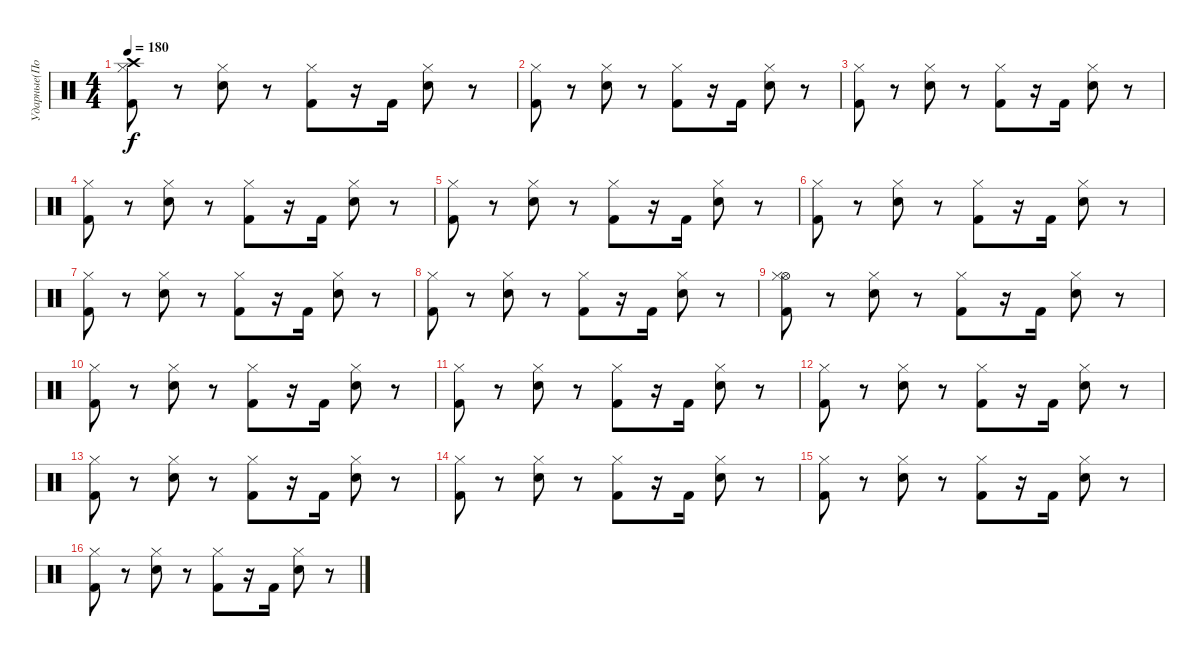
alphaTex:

\track ("Ударные(Потапкин)" "Ударные(По") {instrument percussion}
\staff {score}
\articulation defaults
\ts (4 4)
\tempo 180
\clef neutral
\ks c
("Crash high (hit)" "Hi-Hat (closed)" "Kick (hit) 2").8{dy f} r.8 ("Hi-Hat (closed)" "Electric Snare (hit)").8 r.8 ("Hi-Hat (closed)" "Kick (hit) 2").8 r.16 "Kick (hit) 2".16 ("Hi-Hat (closed)" "Electric Snare (hit)").8 r.8 |
("Kick (hit) 2" "Hi-Hat (closed)").8 r.8 ("Electric Snare (hit)" "Hi-Hat (closed)").8 r.8 ("Kick (hit) 2" "Hi-Hat (closed)").8 r.16 "Kick (hit) 2".16 ("Electric Snare (hit)" "Hi-Hat (closed)").8 r.8 |
("Hi-Hat (closed)" "Kick (hit) 2").8 r.8 ("Hi-Hat (closed)" "Electric Snare (hit)").8 r.8 ("Hi-Hat (closed)" "Kick (hit) 2").8 r.16 "Kick (hit) 2".16 ("Hi-Hat (closed)" "Electric Snare (hit)").8 r.8 |
("Hi-Hat (closed)" "Kick (hit) 2").8 r.8 ("Hi-Hat (closed)" "Electric Snare (hit)").8 r.8 ("Hi-Hat (closed)" "Kick (hit) 2").8 r.16 "Kick (hit) 2".16 ("Hi-Hat (closed)" "Electric Snare (hit)").8 r.8 |
("Kick (hit) 2" "Hi-Hat (closed)").8 r.8 ("Electric Snare (hit)" "Hi-Hat (closed)").8 r.8 ("Kick (hit) 2" "Hi-Hat (closed)").8 r.16 "Kick (hit) 2".16 ("Electric Snare (hit)" "Hi-Hat (closed)").8 r.8 |
("Kick (hit) 2" "Hi-Hat (closed)").8 r.8 ("Electric Snare (hit)" "Hi-Hat (closed)").8 r.8 ("Kick (hit) 2" "Hi-Hat (closed)").8 r.16 "Kick (hit) 2".16 ("Electric Snare (hit)" "Hi-Hat (closed)").8 r.8 |
("Kick (hit) 2" "Hi-Hat (closed)").8 r.8 ("Electric Snare (hit)" "Hi-Hat (closed)").8 r.8 ("Kick (hit) 2" "Hi-Hat (closed)").8 r.16 "Kick (hit) 2".16 ("Electric Snare (hit)" "Hi-Hat (closed)").8 r.8 |
("Kick (hit) 2" "Hi-Hat (closed)").8 r.8 ("Electric Snare (hit)" "Hi-Hat (closed)").8 r.8 ("Kick (hit) 2" "Hi-Hat (closed)").8 r.16 "Kick (hit) 2".16 ("Electric Snare (hit)" "Hi-Hat (closed)").8 r.8 |
("Hi-Hat (open)" "Hi-Hat (closed)" "Kick (hit) 2").8 r.8 ("Hi-Hat (closed)" "Electric Snare (hit)").8 r.8 ("Hi-Hat (closed)" "Kick (hit) 2").8 r.16 "Kick (hit) 2".16 ("Hi-Hat (closed)" "Electric Snare (hit)").8 r.8 |
("Hi-Hat (closed)" "Kick (hit) 2").8 r.8 ("Hi-Hat (closed)" "Electric Snare (hit)").8 r.8 ("Hi-Hat (closed)" "Kick (hit) 2").8 r.16 "Kick (hit) 2".16 ("Hi-Hat (closed)" "Electric Snare (hit)").8 r.8 |
("Hi-Hat (closed)" "Kick (hit) 2").8 r.8 ("Hi-Hat (closed)" "Electric Snare (hit)").8 r.8 ("Hi-Hat (closed)" "Kick (hit) 2").8 r.16 "Kick (hit) 2".16 ("Hi-Hat (closed)" "Electric Snare (hit)").8 r.8 |
("Kick (hit) 2" "Hi-Hat (closed)").8 r.8 ("Electric Snare (hit)" "Hi-Hat (closed)").8 r.8 ("Kick (hit) 2" "Hi-Hat (closed)").8 r.16 "Kick (hit) 2".16 ("Electric Snare (hit)" "Hi-Hat (closed)").8 r.8 |
("Kick (hit) 2" "Hi-Hat (closed)").8 r.8 ("Electric Snare (hit)" "Hi-Hat (closed)").8 r.8 ("Kick (hit) 2" "Hi-Hat (closed)").8 r.16 "Kick (hit) 2".16 ("Electric Snare (hit)" "Hi-Hat (closed)").8 r.8 |
("Hi-Hat (closed)" "Kick (hit) 2").8 r.8 ("Hi-Hat (closed)" "Electric Snare (hit)").8 r.8 ("Hi-Hat (closed)" "Kick (hit) 2").8 r.16 "Kick (hit) 2".16 ("Hi-Hat (closed)" "Electric Snare (hit)").8 r.8 |
("Hi-Hat (closed)" "Kick (hit) 2").8 r.8 ("Hi-Hat (closed)" "Electric Snare (hit)").8 r.8 ("Hi-Hat (closed)" "Kick (hit) 2").8 r.16 "Kick (hit) 2".16 ("Hi-Hat (closed)" "Electric Snare (hit)").8 r.8 |
("Hi-Hat (closed)" "Kick (hit) 2").8 r.8 ("Hi-Hat (closed)" "Electric Snare (hit)").8 r.8 ("Hi-Hat (closed)" "Kick (hit) 2").8 r.16 "Kick (hit) 2".16 ("Hi-Hat (closed)" "Electric Snare (hit)").8 r.8
